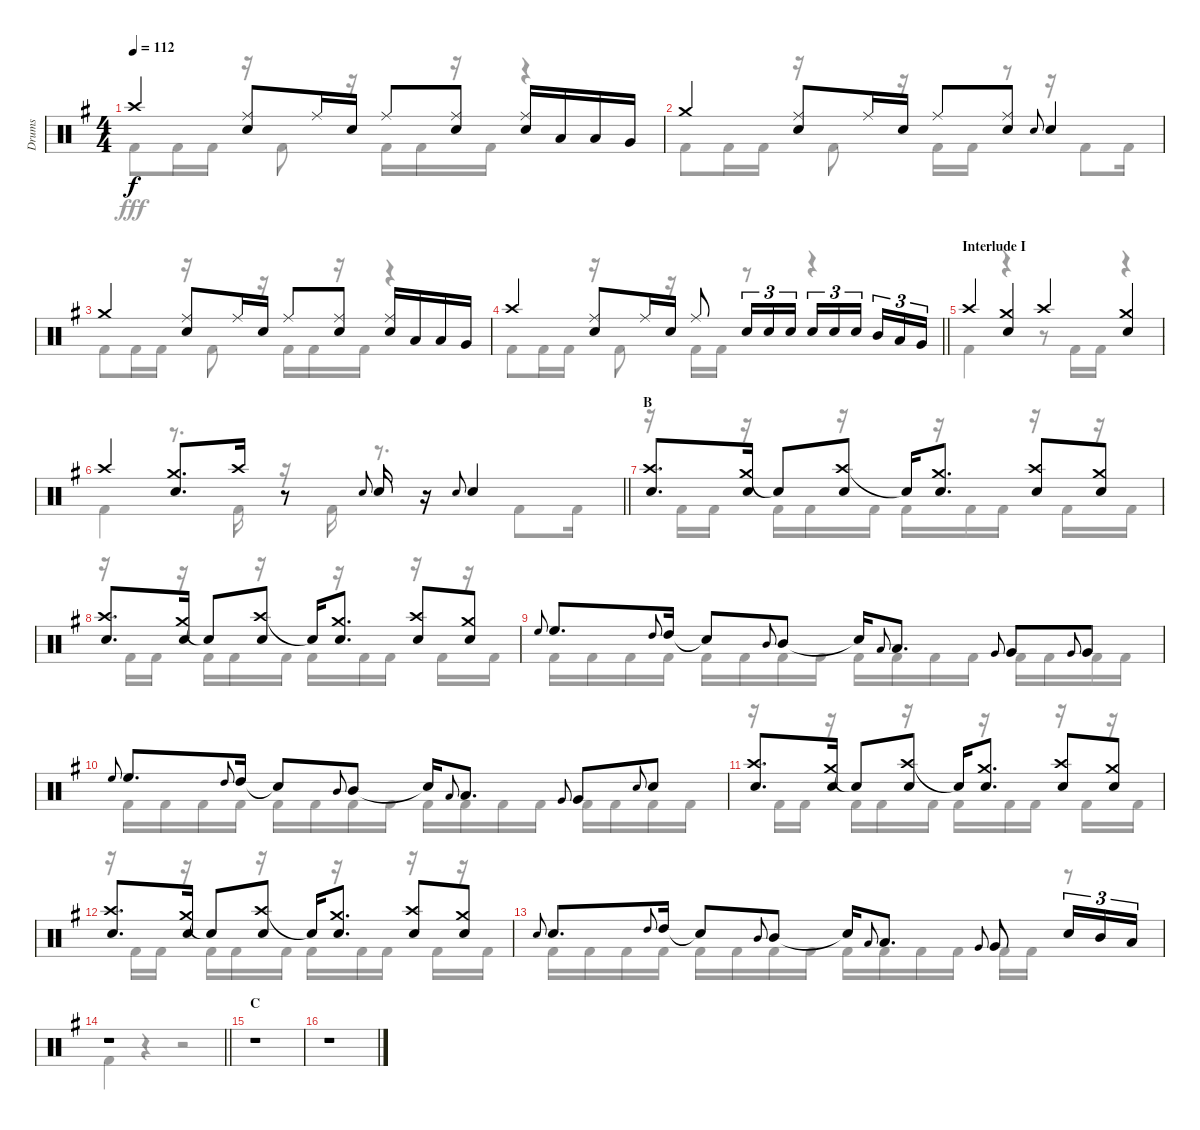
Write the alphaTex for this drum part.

\track ("Drums" "Drums") {instrument percussion}
\staff {score}
\articulation defaults
\voice
\ts (4 4)
\tempo 112
\clef neutral
\ks g "Crash high (hit)".4{dy f}
("Ride (middle)" "Snare (hit) 2").8 "Ride (middle)".16 "Snare (hit) 2".16 "Ride (middle)".8 ("Ride (middle)" "Snare (hit) 2").8 ("Ride (middle)" "Snare (hit) 2").16 "Low Tom (hit)".16 "Low Tom (hit)".16 "Very Low Tom (hit)".16 |
"Crash medium (hit)".4 ("Ride (middle)" "Snare (hit) 2").8 "Ride (middle)".16 "Snare (hit) 2".16 "Ride (middle)".8 ("Ride (middle)" "Snare (hit) 2").8 "Snare (hit) 2".8{gr onbeat} "Snare (hit) 2".4 |
"Crash medium (hit)".4 ("Ride (middle)" "Snare (hit) 2").8 "Ride (middle)".16 "Snare (hit) 2".16 "Ride (middle)".8 ("Ride (middle)" "Snare (hit) 2").8 ("Ride (middle)" "Snare (hit) 2").16 "Low Tom (hit)".16 "Low Tom (hit)".16 "Very Low Tom (hit)".16 |
\barLineRight lightlight "Crash high (hit)".4
("Ride (middle)" "Snare (hit) 2").8 "Ride (middle)".16 "Snare (hit) 2".16 "Ride (middle)".8 "Snare (hit) 2".16{tu (3 2)} "Snare (hit) 2".16{tu (3 2)} "Snare (hit) 2".16{tu (3 2)} "Snare (hit) 2".16{tu (3 2)} "Snare (hit) 2".16{tu (3 2)} "Snare (hit) 2".16{tu (3 2) beam splitsecondary} "Mid Tom (hit)".16{tu (3 2)} "Low Tom (hit)".16{tu (3 2)} "Very Low Tom (hit)".16{tu (3 2)} |
\section ("" "Interlude I")
"Crash high (hit)".4 ("Crash medium (hit)" "Snare (hit) 2").4 "Crash high (hit)".4 ("Crash medium (hit)" "Snare (hit) 2").4 |
\barLineRight lightlight "Crash high (hit)".4
("Crash medium (hit)" "Snare (hit) 2").8{d} "Crash high (hit)".16 r.8 "Snare (hit) 2".8{gr onbeat} "Snare (hit) 2".16 r.16 "Snare (hit) 2".8{gr onbeat} "Snare (hit) 2".4 |
\section ("" "B")
("Crash high (hit)" "Snare (hit) 2").8{d} ("Crash medium (hit)" "Snare (hit) 2").16 "Snare (hit)"{t}.8 ("Crash high (hit)" "Snare (hit) 2").8 "Snare (hit)"{t}.16 ("Crash medium (hit)" "Snare (hit) 2").8{d} ("Crash high (hit)" "Snare (hit) 2").8 ("Crash medium (hit)" "Snare (hit) 2").8 |
("Crash high (hit)" "Snare (hit) 2").8{d} ("Crash medium (hit)" "Snare (hit) 2").16 "Snare (hit)"{t}.8 ("Crash high (hit)" "Snare (hit) 2").8 "Snare (hit)"{t}.16 ("Crash medium (hit)" "Snare (hit) 2").8{d} ("Crash high (hit)" "Snare (hit) 2").8 ("Crash medium (hit)" "Snare (hit) 2").8 |
"High Floor Tom (hit)".8{gr onbeat} "High Floor Tom (hit)".8{d} "High Tom (hit)".8{gr onbeat} "High Tom (hit)".16 "Snare (hit)"{t}.8 "Mid Tom (hit)".8{gr onbeat} "Mid Tom (hit)".8 "Snare (hit)"{t}.16 "Low Tom (hit)".8{gr onbeat} "Low Tom (hit)".8{d} "Very Low Tom (hit)".8{gr onbeat} "Very Low Tom (hit)".8 "Very Low Tom (hit)".8{gr onbeat} "Very Low Tom (hit)".8 |
"High Floor Tom (hit)".8{gr onbeat} "High Floor Tom (hit)".8{d} "High Tom (hit)".8{gr onbeat} "High Tom (hit)".16 "Snare (hit)"{t}.8 "Mid Tom (hit)".8{gr onbeat} "Mid Tom (hit)".8 "Snare (hit)"{t}.16 "Low Tom (hit)".8{gr onbeat} "Low Tom (hit)".8{d} "Very Low Tom (hit)".8{gr onbeat} "Very Low Tom (hit)".8 "Snare (hit) 2".8{gr onbeat} "Snare (hit) 2".8 |
("Crash high (hit)" "Snare (hit) 2").8{d} ("Crash medium (hit)" "Snare (hit) 2").16 "Snare (hit)"{t}.8 ("Crash high (hit)" "Snare (hit) 2").8 "Snare (hit)"{t}.16 ("Crash medium (hit)" "Snare (hit) 2").8{d} ("Crash high (hit)" "Snare (hit) 2").8 ("Crash medium (hit)" "Snare (hit) 2").8 |
("Crash high (hit)" "Snare (hit) 2").8{d} ("Crash medium (hit)" "Snare (hit) 2").16 "Snare (hit)"{t}.8 ("Crash high (hit)" "Snare (hit) 2").8 "Snare (hit)"{t}.16 ("Crash medium (hit)" "Snare (hit) 2").8{d} ("Crash high (hit)" "Snare (hit) 2").8 ("Crash medium (hit)" "Snare (hit) 2").8 |
"Snare (hit) 2".8{gr onbeat} "Snare (hit) 2".8{d} "High Tom (hit)".8{gr onbeat} "High Tom (hit)".16 "Snare (hit)"{t}.8 "Mid Tom (hit)".8{gr onbeat} "Mid Tom (hit)".8 "Snare (hit)"{t}.16 "Low Tom (hit)".8{gr onbeat} "Low Tom (hit)".8{d} "Very Low Tom (hit)".8{gr onbeat} "Very Low Tom (hit)".8 "Snare (hit) 2".16{tu (3 2)} "Mid Tom (hit)".16{tu (3 2)} "Low Tom (hit)".16{tu (3 2)} |
\barLineRight lightlight
r.1 |
\section ("" "C")
r.1 |
r.1
\voice
\clef neutral
\ottava regular
\simile none
\ks g "Kick (hit) 2".8{dy fff} "Kick (hit) 2".16 "Kick (hit) 2".16
r.16 "Kick (hit) 2".8 r.16 "Kick (hit) 2".16 "Kick (hit) 2".16 r.16 "Kick (hit) 2".16 r.4 |
"Kick (hit) 2".8 "Kick (hit) 2".16 "Kick (hit) 2".16 r.16 "Kick (hit) 2".8 r.16 "Kick (hit) 2".16 "Kick (hit) 2".16 r.8 r.16 "Kick (hit) 2".8 "Kick (hit) 2".16 |
"Kick (hit) 2".8 "Kick (hit) 2".16 "Kick (hit) 2".16 r.16 "Kick (hit) 2".8 r.16 "Kick (hit) 2".16 "Kick (hit) 2".16 r.16 "Kick (hit) 2".16 r.4 |
\barLineRight lightlight "Kick (hit) 2".8 "Kick (hit) 2".16 "Kick (hit) 2".16
r.16 "Kick (hit) 2".8 r.16 "Kick (hit) 2".16 "Kick (hit) 2".16 r.8 r.4 |
"Kick (hit) 2".4 r.4 r.8 "Kick (hit) 2".16 "Kick (hit) 2".16 r.4 |
\barLineRight lightlight "Kick (hit) 2".4
r.8{d} "Kick (hit) 2".16 r.16 "Kick (hit) 2".16 r.8{d} "Kick (hit) 2".8 "Kick (hit) 2".16 |
r.16 "Kick (hit) 2".16 "Kick (hit) 2".16 r.16 "Kick (hit) 2".16 "Kick (hit) 2".16 r.16 "Kick (hit) 2".16 "Kick (hit) 2".16 r.16 "Kick (hit) 2".16 "Kick (hit) 2".16 r.16 "Kick (hit) 2".16 r.16 "Kick (hit) 2".16 |
r.16 "Kick (hit) 2".16 "Kick (hit) 2".16 r.16 "Kick (hit) 2".16 "Kick (hit) 2".16 r.16 "Kick (hit) 2".16 "Kick (hit) 2".16 r.16 "Kick (hit) 2".16 "Kick (hit) 2".16 r.16 "Kick (hit) 2".16 r.16 "Kick (hit) 2".16 |
"Kick (hit) 2".16 "Kick (hit) 2".16 "Kick (hit) 2".16 "Kick (hit) 2".16 "Kick (hit) 2".16 "Kick (hit) 2".16 "Kick (hit) 2".16 "Kick (hit) 2".16 "Kick (hit) 2".16 "Kick (hit) 2".16 "Kick (hit) 2".16 "Kick (hit) 2".16 "Kick (hit) 2".16 "Kick (hit) 2".16 "Kick (hit) 2".16 "Kick (hit) 2".16 |
"Kick (hit) 2".16 "Kick (hit) 2".16 "Kick (hit) 2".16 "Kick (hit) 2".16 "Kick (hit) 2".16 "Kick (hit) 2".16 "Kick (hit) 2".16 "Kick (hit) 2".16 "Kick (hit) 2".16 "Kick (hit) 2".16 "Kick (hit) 2".16 "Kick (hit) 2".16 "Kick (hit) 2".16 "Kick (hit) 2".16 "Kick (hit) 2".16 "Kick (hit) 2".16 |
r.16 "Kick (hit) 2".16 "Kick (hit) 2".16 r.16 "Kick (hit) 2".16 "Kick (hit) 2".16 r.16 "Kick (hit) 2".16 "Kick (hit) 2".16 r.16 "Kick (hit) 2".16 "Kick (hit) 2".16 r.16 "Kick (hit) 2".16 r.16 "Kick (hit) 2".16 |
r.16 "Kick (hit) 2".16 "Kick (hit) 2".16 r.16 "Kick (hit) 2".16 "Kick (hit) 2".16 r.16 "Kick (hit) 2".16 "Kick (hit) 2".16 r.16 "Kick (hit) 2".16 "Kick (hit) 2".16 r.16 "Kick (hit) 2".16 r.16 "Kick (hit) 2".16 |
"Kick (hit) 2".16 "Kick (hit) 2".16 "Kick (hit) 2".16 "Kick (hit) 2".16 "Kick (hit) 2".16 "Kick (hit) 2".16 "Kick (hit) 2".16 "Kick (hit) 2".16 "Kick (hit) 2".16 "Kick (hit) 2".16 "Kick (hit) 2".16 "Kick (hit) 2".16 "Kick (hit) 2".16 "Kick (hit) 2".16 r.8 |
\barLineRight lightlight "Kick (hit) 2".4
r.4 r.2 |
|
